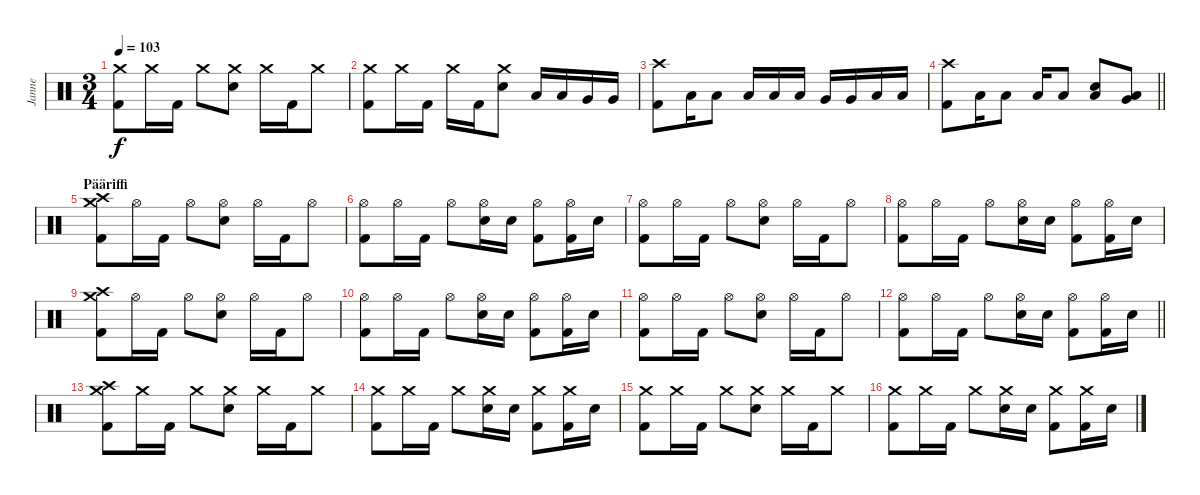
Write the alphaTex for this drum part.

\track ("Janne" "Janne") {instrument percussion}
\staff {score}
\articulation defaults
\ts (3 4)
\tempo 103
\clef neutral
\ks c
("Crash medium (hit)" "Kick (hit) 2").8{dy f} "Crash medium (hit)".16 "Kick (hit) 2".16 "Crash medium (hit)".8 ("Crash medium (hit)" "Electric Snare (hit)").8 "Crash medium (hit)".16 "Kick (hit) 2".16 "Crash medium (hit)".8 |
("Crash medium (hit)" "Kick (hit) 2").8 "Crash medium (hit)".16 "Kick (hit) 2".16 "Crash medium (hit)".16 "Kick (hit) 2".16 ("Crash medium (hit)" "Electric Snare (hit)").8 "Low Tom (hit)".16 "Low Tom (hit)".16 "Very Low Tom (hit)".16 "Very Low Tom (hit)".16 |
("Crash high (hit)" "Kick (hit) 2").8 "Low Tom (hit)".16 "Low Tom (hit)".8 "Low Tom (hit)".16 "Low Tom (hit)".16 "Low Tom (hit)".16 "Very Low Tom (hit)".16 "Very Low Tom (hit)".16 "Low Floor Tom (hit)".16 "Low Floor Tom (hit)".16 |
\barLineRight lightlight
("Crash high (hit)" "Kick (hit) 2").8 "Low Tom (hit)".16 "Low Tom (hit)".8 "Low Tom (hit)".16 "Low Tom (hit)".8 ("Electric Snare (hit)" "Low Floor Tom (hit)").8 ("Very Low Tom (hit)" "Low Floor Tom (hit)").8 |
\section ("" "Pääriffi")
("Crash medium (hit)" "Crash high (hit)" "Kick (hit) 2").8 "Hi-Hat (open)".16 "Kick (hit) 2".16 "Hi-Hat (open)".8 ("Hi-Hat (open)" "Electric Snare (hit)").8 "Hi-Hat (open)".16 "Kick (hit) 2".16 "Hi-Hat (open)".8 |
("Hi-Hat (open)" "Kick (hit) 2").8 "Hi-Hat (open)".16 "Kick (hit) 2".16 "Hi-Hat (open)".8 ("Hi-Hat (open)" "Electric Snare (hit)").16 "Electric Snare (hit)".16 ("Hi-Hat (open)" "Kick (hit) 2").8 ("Hi-Hat (open)" "Kick (hit) 2").16 "Electric Snare (hit)".16 |
("Hi-Hat (open)" "Kick (hit) 2").8 "Hi-Hat (open)".16 "Kick (hit) 2".16 "Hi-Hat (open)".8 ("Hi-Hat (open)" "Electric Snare (hit)").8 "Hi-Hat (open)".16 "Kick (hit) 2".16 "Hi-Hat (open)".8 |
("Hi-Hat (open)" "Kick (hit) 2").8 "Hi-Hat (open)".16 "Kick (hit) 2".16 "Hi-Hat (open)".8 ("Hi-Hat (open)" "Electric Snare (hit)").16 "Electric Snare (hit)".16 ("Hi-Hat (open)" "Kick (hit) 2").8 ("Hi-Hat (open)" "Kick (hit) 2").16 "Electric Snare (hit)".16 |
("Crash medium (hit)" "Crash high (hit)" "Kick (hit) 2").8 "Hi-Hat (open)".16 "Kick (hit) 2".16 "Hi-Hat (open)".8 ("Hi-Hat (open)" "Electric Snare (hit)").8 "Hi-Hat (open)".16 "Kick (hit) 2".16 "Hi-Hat (open)".8 |
("Hi-Hat (open)" "Kick (hit) 2").8 "Hi-Hat (open)".16 "Kick (hit) 2".16 "Hi-Hat (open)".8 ("Hi-Hat (open)" "Electric Snare (hit)").16 "Electric Snare (hit)".16 ("Hi-Hat (open)" "Kick (hit) 2").8 ("Hi-Hat (open)" "Kick (hit) 2").16 "Electric Snare (hit)".16 |
("Hi-Hat (open)" "Kick (hit) 2").8 "Hi-Hat (open)".16 "Kick (hit) 2".16 "Hi-Hat (open)".8 ("Hi-Hat (open)" "Electric Snare (hit)").8 "Hi-Hat (open)".16 "Kick (hit) 2".16 "Hi-Hat (open)".8 |
\barLineRight lightlight
("Hi-Hat (open)" "Kick (hit) 2").8 "Hi-Hat (open)".16 "Kick (hit) 2".16 "Hi-Hat (open)".8 ("Hi-Hat (open)" "Electric Snare (hit)").16 "Electric Snare (hit)".16 ("Hi-Hat (open)" "Kick (hit) 2").8 ("Hi-Hat (open)" "Kick (hit) 2").16 "Electric Snare (hit)".16 |
("Crash medium (hit)" "Crash high (hit)" "Kick (hit) 2").8 "Crash medium (hit)".16 "Kick (hit) 2".16 "Crash medium (hit)".8 ("Crash medium (hit)" "Electric Snare (hit)").8 "Crash medium (hit)".16 "Kick (hit) 2".16 "Crash medium (hit)".8 |
("Crash medium (hit)" "Kick (hit) 2").8 "Crash medium (hit)".16 "Kick (hit) 2".16 "Crash medium (hit)".8 ("Crash medium (hit)" "Electric Snare (hit)").16 "Electric Snare (hit)".16 ("Crash medium (hit)" "Kick (hit) 2").8 ("Crash medium (hit)" "Kick (hit) 2").16 "Electric Snare (hit)".16 |
("Crash medium (hit)" "Kick (hit) 2").8 "Crash medium (hit)".16 "Kick (hit) 2".16 "Crash medium (hit)".8 ("Crash medium (hit)" "Electric Snare (hit)").8 "Crash medium (hit)".16 "Kick (hit) 2".16 "Crash medium (hit)".8 |
("Crash medium (hit)" "Kick (hit) 2").8 "Crash medium (hit)".16 "Kick (hit) 2".16 "Crash medium (hit)".8 ("Crash medium (hit)" "Electric Snare (hit)").16 "Electric Snare (hit)".16 ("Crash medium (hit)" "Kick (hit) 2").8 ("Crash medium (hit)" "Kick (hit) 2").16 "Electric Snare (hit)".16
